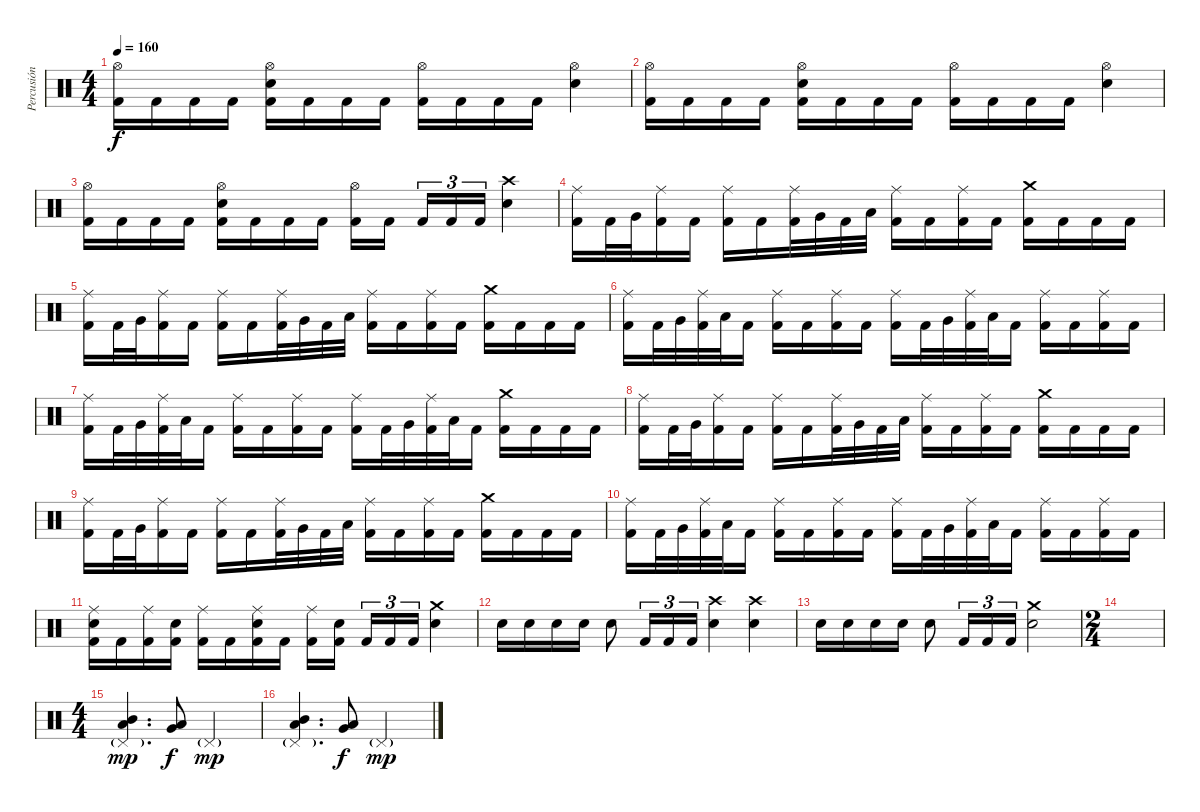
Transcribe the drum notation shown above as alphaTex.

\track ("Percusión" "Percusión") {instrument percussion}
\staff {score}
\articulation defaults
\ts (4 4)
\tempo 160
\clef neutral
\ks c
("Hi-Hat (open)" "Kick (hit) 2").16{dy f} "Kick (hit) 2".16 "Kick (hit) 2".16 "Kick (hit) 2".16 ("Hi-Hat (open)" "Electric Snare (hit)" "Kick (hit) 2").16 "Kick (hit) 2".16 "Kick (hit) 2".16 "Kick (hit) 2".16 ("Hi-Hat (open)" "Kick (hit) 2").16 "Kick (hit) 2".16 "Kick (hit) 2".16 "Kick (hit) 2".16 ("Hi-Hat (open)" "Electric Snare (hit)").4 |
("Hi-Hat (open)" "Kick (hit) 2").16 "Kick (hit) 2".16 "Kick (hit) 2".16 "Kick (hit) 2".16 ("Hi-Hat (open)" "Electric Snare (hit)" "Kick (hit) 2").16 "Kick (hit) 2".16 "Kick (hit) 2".16 "Kick (hit) 2".16 ("Hi-Hat (open)" "Kick (hit) 2").16 "Kick (hit) 2".16 "Kick (hit) 2".16 "Kick (hit) 2".16 ("Hi-Hat (open)" "Electric Snare (hit)").4 |
("Hi-Hat (open)" "Kick (hit) 2").16 "Kick (hit) 2".16 "Kick (hit) 2".16 "Kick (hit) 2".16 ("Hi-Hat (open)" "Electric Snare (hit)" "Kick (hit) 2").16 "Kick (hit) 2".16 "Kick (hit) 2".16 "Kick (hit) 2".16 ("Hi-Hat (open)" "Kick (hit) 2").16 "Kick (hit) 2".16{beam splitsecondary} "Kick (hit) 2".16{tu (3 2)} "Kick (hit) 2".16{tu (3 2)} "Kick (hit) 2".16{tu (3 2)} ("Crash high (hit)" "Electric Snare (hit)").4 |
("Ride (middle)" "Kick (hit) 2").16 "Kick (hit) 2".32 "Very Low Tom (hit)".32 ("Ride (middle)" "Kick (hit) 2").16 "Kick (hit) 2".16 ("Ride (middle)" "Kick (hit) 2").16 "Kick (hit) 2".16 ("Ride (middle)" "Kick (hit) 2").32 "Very Low Tom (hit)".32 "Kick (hit) 2".32 "Low Floor Tom (hit)".32 ("Ride (middle)" "Kick (hit) 2").16 "Kick (hit) 2".16 ("Ride (middle)" "Kick (hit) 2").16 "Kick (hit) 2".16 ("Crash medium (hit)" "Kick (hit) 2").16 "Kick (hit) 2".16 "Kick (hit) 2".16 "Kick (hit) 2".16 |
("Ride (middle)" "Kick (hit) 2").16 "Kick (hit) 2".32 "Very Low Tom (hit)".32 ("Ride (middle)" "Kick (hit) 2").16 "Kick (hit) 2".16 ("Ride (middle)" "Kick (hit) 2").16 "Kick (hit) 2".16 ("Ride (middle)" "Kick (hit) 2").32 "Very Low Tom (hit)".32 "Kick (hit) 2".32 "Low Floor Tom (hit)".32 ("Ride (middle)" "Kick (hit) 2").16 "Kick (hit) 2".16 ("Ride (middle)" "Kick (hit) 2").16 "Kick (hit) 2".16 ("Crash medium (hit)" "Kick (hit) 2").16 "Kick (hit) 2".16 "Kick (hit) 2".16 "Kick (hit) 2".16 |
("Ride (middle)" "Kick (hit) 2").16 "Kick (hit) 2".32 "Very Low Tom (hit)".32 ("Ride (middle)" "Kick (hit) 2").32 "Low Floor Tom (hit)".32 "Kick (hit) 2".16 ("Ride (middle)" "Kick (hit) 2").16 "Kick (hit) 2".16 ("Ride (middle)" "Kick (hit) 2").16 "Kick (hit) 2".16 ("Ride (middle)" "Kick (hit) 2").16 "Kick (hit) 2".32 "Very Low Tom (hit)".32 ("Ride (middle)" "Kick (hit) 2").32 "Low Floor Tom (hit)".32 "Kick (hit) 2".16 ("Ride (middle)" "Kick (hit) 2").16 "Kick (hit) 2".16 ("Ride (middle)" "Kick (hit) 2").16 "Kick (hit) 2".16 |
("Ride (middle)" "Kick (hit) 2").16 "Kick (hit) 2".32 "Very Low Tom (hit)".32 ("Ride (middle)" "Kick (hit) 2").32 "Low Floor Tom (hit)".32 "Kick (hit) 2".16 ("Ride (middle)" "Kick (hit) 2").16 "Kick (hit) 2".16 ("Ride (middle)" "Kick (hit) 2").16 "Kick (hit) 2".16 ("Ride (middle)" "Kick (hit) 2").16 "Kick (hit) 2".32 "Very Low Tom (hit)".32 ("Ride (middle)" "Kick (hit) 2").32 "Low Floor Tom (hit)".32 "Kick (hit) 2".16 ("Crash medium (hit)" "Kick (hit) 2").16 "Kick (hit) 2".16 "Kick (hit) 2".16 "Kick (hit) 2".16 |
("Ride (middle)" "Kick (hit) 2").16 "Kick (hit) 2".32 "Very Low Tom (hit)".32 ("Ride (middle)" "Kick (hit) 2").16 "Kick (hit) 2".16 ("Ride (middle)" "Kick (hit) 2").16 "Kick (hit) 2".16 ("Ride (middle)" "Kick (hit) 2").32 "Very Low Tom (hit)".32 "Kick (hit) 2".32 "Low Floor Tom (hit)".32 ("Ride (middle)" "Kick (hit) 2").16 "Kick (hit) 2".16 ("Ride (middle)" "Kick (hit) 2").16 "Kick (hit) 2".16 ("Crash medium (hit)" "Kick (hit) 2").16 "Kick (hit) 2".16 "Kick (hit) 2".16 "Kick (hit) 2".16 |
("Ride (middle)" "Kick (hit) 2").16 "Kick (hit) 2".32 "Very Low Tom (hit)".32 ("Ride (middle)" "Kick (hit) 2").16 "Kick (hit) 2".16 ("Ride (middle)" "Kick (hit) 2").16 "Kick (hit) 2".16 ("Ride (middle)" "Kick (hit) 2").32 "Very Low Tom (hit)".32 "Kick (hit) 2".32 "Low Floor Tom (hit)".32 ("Ride (middle)" "Kick (hit) 2").16 "Kick (hit) 2".16 ("Ride (middle)" "Kick (hit) 2").16 "Kick (hit) 2".16 ("Crash medium (hit)" "Kick (hit) 2").16 "Kick (hit) 2".16 "Kick (hit) 2".16 "Kick (hit) 2".16 |
("Ride (middle)" "Kick (hit) 2").16 "Kick (hit) 2".32 "Very Low Tom (hit)".32 ("Ride (middle)" "Kick (hit) 2").32 "Low Floor Tom (hit)".32 "Kick (hit) 2".16 ("Ride (middle)" "Kick (hit) 2").16 "Kick (hit) 2".16 ("Ride (middle)" "Kick (hit) 2").16 "Kick (hit) 2".16 ("Ride (middle)" "Kick (hit) 2").16 "Kick (hit) 2".32 "Very Low Tom (hit)".32 ("Ride (middle)" "Kick (hit) 2").32 "Low Floor Tom (hit)".32 "Kick (hit) 2".16 ("Ride (middle)" "Kick (hit) 2").16 "Kick (hit) 2".16 ("Ride (middle)" "Kick (hit) 2").16 "Kick (hit) 2".16 |
("Ride (middle)" "Electric Snare (hit)" "Kick (hit) 2").16 "Kick (hit) 2".16 ("Ride (middle)" "Kick (hit) 2").16 ("Electric Snare (hit)" "Kick (hit) 2").16 ("Ride (middle)" "Kick (hit) 2").16 "Kick (hit) 2".16 ("Ride (middle)" "Electric Snare (hit)" "Kick (hit) 2").16 "Kick (hit) 2".16 ("Ride (middle)" "Kick (hit) 2").16 ("Electric Snare (hit)" "Kick (hit) 2").16{beam splitsecondary} "Kick (hit) 2".16{tu (3 2)} "Kick (hit) 2".16{tu (3 2)} "Kick (hit) 2".16{tu (3 2)} ("Crash medium (hit)" "Electric Snare (hit)").4 |
"Electric Snare (hit)".16 "Electric Snare (hit)".16 "Electric Snare (hit)".16 "Electric Snare (hit)".16 "Electric Snare (hit)".8 "Kick (hit) 2".16{tu (3 2)} "Kick (hit) 2".16{tu (3 2)} "Kick (hit) 2".16{tu (3 2)} ("Crash high (hit)" "Electric Snare (hit)").4 ("Crash high (hit)" "Electric Snare (hit)").4 |
"Electric Snare (hit)".16 "Electric Snare (hit)".16 "Electric Snare (hit)".16 "Electric Snare (hit)".16 "Electric Snare (hit)".8 "Kick (hit) 2".16{tu (3 2)} "Kick (hit) 2".16{tu (3 2)} "Kick (hit) 2".16{tu (3 2)} ("Crash medium (hit)" "Electric Snare (hit)").2 |
\ts (2 4)
|
\ts (4 4)
("Pedal Hi-Hat (hit)"{g} "Mid Tom (hit)" "Low Tom (hit)").4{d dy mp} ("Low Tom (hit)" "Very Low Tom (hit)").8{dy f} "Pedal Hi-Hat (hit)"{g}.2{dy mp} |
("Pedal Hi-Hat (hit)"{g} "Mid Tom (hit)" "Low Tom (hit)").4{d} ("Low Tom (hit)" "Very Low Tom (hit)").8{dy f} "Pedal Hi-Hat (hit)"{g}.2{dy mp}
